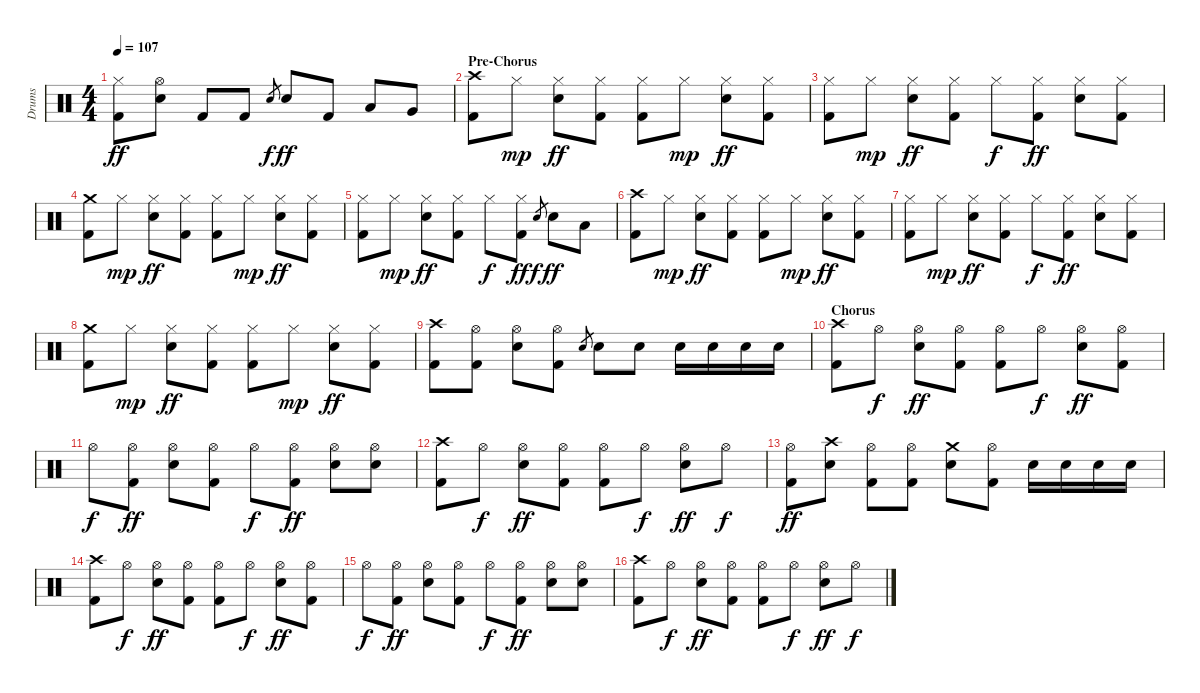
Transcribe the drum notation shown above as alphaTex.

\track ("Drums" "Drums") {instrument percussion}
\staff {score}
\articulation defaults
\ts (4 4)
\tempo 107
\clef neutral
\ks c
("Hi-Hat (closed)" "Kick (hit) 2").8{dy ff} ("Hi-Hat (open)" "Snare (hit) 2").8 "Kick (hit) 2".8 "Kick (hit) 2".8 "Snare (hit) 2".8{gr dy f} "Snare (hit) 2".8{dy ff} "Kick (hit) 2".8 "Low Tom (hit)".8 "Very Low Tom (hit)".8 |
\section ("" "Pre-Chorus")
("Crash high (hit)" "Kick (hit) 2").8 "Hi-Hat (closed)".8{dy mp} ("Hi-Hat (closed)" "Snare (hit) 2").8{dy ff} ("Hi-Hat (closed)" "Kick (hit) 2").8 ("Hi-Hat (closed)" "Kick (hit) 2").8 "Hi-Hat (closed)".8{dy mp} ("Hi-Hat (closed)" "Snare (hit) 2").8{dy ff} ("Hi-Hat (closed)" "Kick (hit) 2").8 |
("Hi-Hat (closed)" "Kick (hit) 2").8 "Hi-Hat (closed)".8{dy mp} ("Hi-Hat (closed)" "Snare (hit) 2").8{dy ff} ("Hi-Hat (closed)" "Kick (hit) 2").8 "Hi-Hat (closed)".8{dy f} ("Hi-Hat (closed)" "Kick (hit) 2").8{dy ff} ("Hi-Hat (closed)" "Snare (hit) 2").8 ("Hi-Hat (closed)" "Kick (hit) 2").8 |
("Crash medium (hit)" "Kick (hit) 2").8 "Hi-Hat (closed)".8{dy mp} ("Hi-Hat (closed)" "Snare (hit) 2").8{dy ff} ("Hi-Hat (closed)" "Kick (hit) 2").8 ("Hi-Hat (closed)" "Kick (hit) 2").8 "Hi-Hat (closed)".8{dy mp} ("Hi-Hat (closed)" "Snare (hit) 2").8{dy ff} ("Hi-Hat (closed)" "Kick (hit) 2").8 |
("Hi-Hat (closed)" "Kick (hit) 2").8 "Hi-Hat (closed)".8{dy mp} ("Hi-Hat (closed)" "Snare (hit) 2").8{dy ff} ("Hi-Hat (closed)" "Kick (hit) 2").8 "Hi-Hat (closed)".8{dy f} ("Hi-Hat (closed)" "Kick (hit) 2").8{dy ff} "Snare (hit) 2".8{gr dy f} "Snare (hit) 2".8{dy ff} "Low Tom (hit)".8 |
("Crash high (hit)" "Kick (hit) 2").8 "Hi-Hat (closed)".8{dy mp} ("Hi-Hat (closed)" "Snare (hit) 2").8{dy ff} ("Hi-Hat (closed)" "Kick (hit) 2").8 ("Hi-Hat (closed)" "Kick (hit) 2").8 "Hi-Hat (closed)".8{dy mp} ("Hi-Hat (closed)" "Snare (hit) 2").8{dy ff} ("Hi-Hat (closed)" "Kick (hit) 2").8 |
("Hi-Hat (closed)" "Kick (hit) 2").8 "Hi-Hat (closed)".8{dy mp} ("Hi-Hat (closed)" "Snare (hit) 2").8{dy ff} ("Hi-Hat (closed)" "Kick (hit) 2").8 "Hi-Hat (closed)".8{dy f} ("Hi-Hat (closed)" "Kick (hit) 2").8{dy ff} ("Hi-Hat (closed)" "Snare (hit) 2").8 ("Hi-Hat (closed)" "Kick (hit) 2").8 |
("Crash medium (hit)" "Kick (hit) 2").8 "Hi-Hat (closed)".8{dy mp} ("Hi-Hat (closed)" "Snare (hit) 2").8{dy ff} ("Hi-Hat (closed)" "Kick (hit) 2").8 ("Hi-Hat (closed)" "Kick (hit) 2").8 "Hi-Hat (closed)".8{dy mp} ("Hi-Hat (closed)" "Snare (hit) 2").8{dy ff} ("Hi-Hat (closed)" "Kick (hit) 2").8 |
("Crash high (hit)" "Kick (hit) 2").8 ("Hi-Hat (open)" "Kick (hit) 2").8 ("Hi-Hat (open)" "Snare (hit) 2").8 ("Hi-Hat (open)" "Kick (hit) 2").8 "Snare (hit) 2".8{gr} "Snare (hit) 2".8 "Snare (hit) 2".8 "Snare (hit) 2".16 "Snare (hit) 2".16 "Snare (hit) 2".16 "Snare (hit) 2".16 |
\section ("" "Chorus")
("Crash high (hit)" "Kick (hit) 2").8 "Hi-Hat (open)".8{dy f} ("Hi-Hat (open)" "Snare (hit) 2").8{dy ff} ("Hi-Hat (open)" "Kick (hit) 2").8 ("Hi-Hat (open)" "Kick (hit) 2").8 "Hi-Hat (open)".8{dy f} ("Hi-Hat (open)" "Snare (hit) 2").8{dy ff} ("Hi-Hat (open)" "Kick (hit) 2").8 |
"Hi-Hat (open)".8{dy f} ("Hi-Hat (open)" "Kick (hit) 2").8{dy ff} ("Hi-Hat (open)" "Snare (hit) 2").8 ("Hi-Hat (open)" "Kick (hit) 2").8 "Hi-Hat (open)".8{dy f} ("Hi-Hat (open)" "Kick (hit) 2").8{dy ff} ("Hi-Hat (open)" "Snare (hit) 2").8 ("Hi-Hat (open)" "Snare (hit) 2").8 |
("Crash high (hit)" "Kick (hit) 2").8 "Hi-Hat (open)".8{dy f} ("Hi-Hat (open)" "Snare (hit) 2").8{dy ff} ("Hi-Hat (open)" "Kick (hit) 2").8 ("Hi-Hat (open)" "Kick (hit) 2").8 "Hi-Hat (open)".8{dy f} ("Hi-Hat (open)" "Snare (hit) 2").8{dy ff} "Hi-Hat (open)".8{dy f} |
("Hi-Hat (open)" "Kick (hit) 2").8{dy ff} ("Crash high (hit)" "Snare (hit) 2").8 ("Hi-Hat (open)" "Kick (hit) 2").8 ("Hi-Hat (open)" "Kick (hit) 2").8 ("Crash medium (hit)" "Snare (hit) 2").8 ("Hi-Hat (open)" "Kick (hit) 2").8 "Snare (hit) 2".16 "Snare (hit) 2".16 "Snare (hit) 2".16 "Snare (hit) 2".16 |
("Crash high (hit)" "Kick (hit) 2").8 "Hi-Hat (open)".8{dy f} ("Hi-Hat (open)" "Snare (hit) 2").8{dy ff} ("Hi-Hat (open)" "Kick (hit) 2").8 ("Hi-Hat (open)" "Kick (hit) 2").8 "Hi-Hat (open)".8{dy f} ("Hi-Hat (open)" "Snare (hit) 2").8{dy ff} ("Hi-Hat (open)" "Kick (hit) 2").8 |
"Hi-Hat (open)".8{dy f} ("Hi-Hat (open)" "Kick (hit) 2").8{dy ff} ("Hi-Hat (open)" "Snare (hit) 2").8 ("Hi-Hat (open)" "Kick (hit) 2").8 "Hi-Hat (open)".8{dy f} ("Hi-Hat (open)" "Kick (hit) 2").8{dy ff} ("Hi-Hat (open)" "Snare (hit) 2").8 ("Hi-Hat (open)" "Snare (hit) 2").8 |
("Crash high (hit)" "Kick (hit) 2").8 "Hi-Hat (open)".8{dy f} ("Hi-Hat (open)" "Snare (hit) 2").8{dy ff} ("Hi-Hat (open)" "Kick (hit) 2").8 ("Hi-Hat (open)" "Kick (hit) 2").8 "Hi-Hat (open)".8{dy f} ("Hi-Hat (open)" "Snare (hit) 2").8{dy ff} "Hi-Hat (open)".8{dy f}
